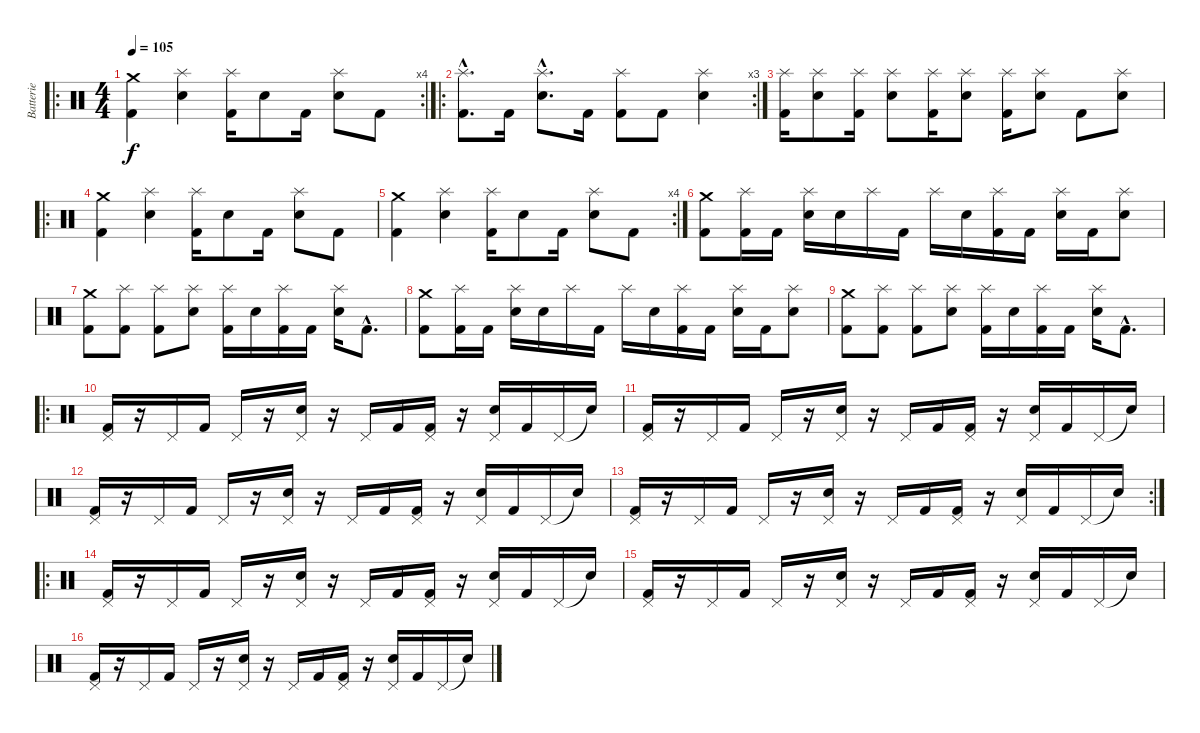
\track ("Batterie" "Batterie") {instrument percussion}
\staff {score}
\articulation defaults
\ro
\rc 4
\ts (4 4)
\tempo 105
\clef neutral
\ks c
("Crash medium (hit)" "Kick (hit) 2").4{dy f} ("Splash (hit)" "Electric Snare (hit)").4 ("Splash (hit)" "Kick (hit) 2").16 "Electric Snare (hit)".8 "Kick (hit) 2".16 ("Splash (hit)" "Electric Snare (hit)").8 "Kick (hit) 2"{tr (36 32)}.8 |
\ro
\rc 3
("Splash (hit)"{hac} "Kick (hit) 2"{hac}).8{d} "Kick (hit) 2".16 ("Splash (hit)"{hac} "Electric Snare (hit)"{hac}).8{d} "Kick (hit) 2".16 ("Splash (hit)" "Kick (hit) 2").8 "Kick (hit) 2".8 ("Splash (hit)" "Electric Snare (hit)").4 |
("Splash (hit)" "Kick (hit) 2").16 ("Splash (hit)" "Electric Snare (hit)").8 ("Splash (hit)" "Kick (hit) 2").16 ("Splash (hit)" "Electric Snare (hit)").8 ("Splash (hit)" "Kick (hit) 2").16 ("Splash (hit)" "Electric Snare (hit)").8 ("Splash (hit)" "Kick (hit) 2").16 ("Splash (hit)" "Electric Snare (hit)").8 "Kick (hit) 2"{tr (36 32)}.8 ("Splash (hit)" "Electric Snare (hit)").8 |
\ro
("Crash medium (hit)" "Kick (hit) 2").4 ("Splash (hit)" "Electric Snare (hit)").4 ("Splash (hit)" "Kick (hit) 2").16 "Electric Snare (hit)".8 "Kick (hit) 2".16 ("Splash (hit)" "Electric Snare (hit)").8 "Kick (hit) 2"{tr (36 32)}.8 |
\rc 4
("Crash medium (hit)" "Kick (hit) 2").4 ("Splash (hit)" "Electric Snare (hit)").4 ("Splash (hit)" "Kick (hit) 2").16 "Electric Snare (hit)".8 "Kick (hit) 2".16 ("Splash (hit)" "Electric Snare (hit)").8 "Kick (hit) 2"{tr (36 32)}.8 |
("Crash medium (hit)" "Kick (hit) 2").8 ("Splash (hit)" "Kick (hit) 2").16 "Kick (hit) 2".16 ("Splash (hit)" "Electric Snare (hit)").16 "Electric Snare (hit)".16 "Splash (hit)".16 "Kick (hit) 2".16 "Splash (hit)".16 "Electric Snare (hit)".16 ("Splash (hit)" "Kick (hit) 2").16 "Kick (hit) 2".16 ("Splash (hit)" "Electric Snare (hit)").16 "Kick (hit) 2".16 ("Splash (hit)" "Electric Snare (hit)").8 |
("Crash medium (hit)" "Kick (hit) 2").8 ("Splash (hit)" "Kick (hit) 2").8 ("Splash (hit)" "Kick (hit) 2").8 ("Splash (hit)" "Electric Snare (hit)").8 ("Splash (hit)" "Kick (hit) 2").16 "Electric Snare (hit)".16 ("Splash (hit)" "Kick (hit) 2").16 "Kick (hit) 2".16 ("Splash (hit)" "Electric Snare (hit)").16 "Kick (hit) 2"{hac}.8{d} |
("Crash medium (hit)" "Kick (hit) 2").8 ("Splash (hit)" "Kick (hit) 2").16 "Kick (hit) 2".16 ("Splash (hit)" "Electric Snare (hit)").16 "Electric Snare (hit)".16 "Splash (hit)".16 "Kick (hit) 2".16 "Splash (hit)".16 "Electric Snare (hit)".16 ("Splash (hit)" "Kick (hit) 2").16 "Kick (hit) 2".16 ("Splash (hit)" "Electric Snare (hit)").16 "Kick (hit) 2".16 ("Splash (hit)" "Electric Snare (hit)").8 |
("Crash medium (hit)" "Kick (hit) 2").8 ("Splash (hit)" "Kick (hit) 2").8 ("Splash (hit)" "Kick (hit) 2").8 ("Splash (hit)" "Electric Snare (hit)").8 ("Splash (hit)" "Kick (hit) 2").16 "Electric Snare (hit)".16 ("Splash (hit)" "Kick (hit) 2").16 "Kick (hit) 2".16 ("Splash (hit)" "Electric Snare (hit)").16 "Kick (hit) 2"{hac}.8{d} |
\ro
("Pedal Hi-Hat (hit)" "Kick (hit) 2").16 r.16 "Pedal Hi-Hat (hit)".16 "Kick (hit) 2".16 "Pedal Hi-Hat (hit)".16 r.16 ("Pedal Hi-Hat (hit)" "Electric Snare (hit)").16 r.16 "Pedal Hi-Hat (hit)".16 "Kick (hit) 2".16 ("Pedal Hi-Hat (hit)" "Kick (hit) 2").16 r.16 ("Pedal Hi-Hat (hit)" "Electric Snare (hit)").16 "Kick (hit) 2".16 "Pedal Hi-Hat (hit)"{tr (44 64)}.16 "Snare (hit)"{t}.16 |
("Pedal Hi-Hat (hit)" "Kick (hit) 2").16 r.16 "Pedal Hi-Hat (hit)".16 "Kick (hit) 2".16 "Pedal Hi-Hat (hit)".16 r.16 ("Pedal Hi-Hat (hit)" "Electric Snare (hit)").16 r.16 "Pedal Hi-Hat (hit)".16 "Kick (hit) 2".16 ("Pedal Hi-Hat (hit)" "Kick (hit) 2").16 r.16 ("Pedal Hi-Hat (hit)" "Electric Snare (hit)").16 "Kick (hit) 2".16 "Pedal Hi-Hat (hit)"{tr (44 64)}.16 "Snare (hit)"{t}.16 |
("Pedal Hi-Hat (hit)" "Kick (hit) 2").16 r.16 "Pedal Hi-Hat (hit)".16 "Kick (hit) 2".16 "Pedal Hi-Hat (hit)".16 r.16 ("Pedal Hi-Hat (hit)" "Electric Snare (hit)").16 r.16 "Pedal Hi-Hat (hit)".16 "Kick (hit) 2".16 ("Pedal Hi-Hat (hit)" "Kick (hit) 2").16 r.16 ("Pedal Hi-Hat (hit)" "Electric Snare (hit)").16 "Kick (hit) 2".16 "Pedal Hi-Hat (hit)"{tr (44 64)}.16 "Snare (hit)"{t}.16 |
\rc 2
("Pedal Hi-Hat (hit)" "Kick (hit) 2").16 r.16 "Pedal Hi-Hat (hit)".16 "Kick (hit) 2".16 "Pedal Hi-Hat (hit)".16 r.16 ("Pedal Hi-Hat (hit)" "Electric Snare (hit)").16 r.16 "Pedal Hi-Hat (hit)".16 "Kick (hit) 2".16 ("Pedal Hi-Hat (hit)" "Kick (hit) 2").16 r.16 ("Pedal Hi-Hat (hit)" "Electric Snare (hit)").16 "Kick (hit) 2".16 "Pedal Hi-Hat (hit)"{tr (44 64)}.16 "Snare (hit)"{t}.16 |
\ro
("Pedal Hi-Hat (hit)" "Kick (hit) 2").16 r.16 "Pedal Hi-Hat (hit)".16 "Kick (hit) 2".16 "Pedal Hi-Hat (hit)".16 r.16 ("Pedal Hi-Hat (hit)" "Electric Snare (hit)").16 r.16 "Pedal Hi-Hat (hit)".16 "Kick (hit) 2".16 ("Pedal Hi-Hat (hit)" "Kick (hit) 2").16 r.16 ("Pedal Hi-Hat (hit)" "Electric Snare (hit)").16 "Kick (hit) 2".16 "Pedal Hi-Hat (hit)"{tr (44 64)}.16 "Snare (hit)"{t}.16 |
("Pedal Hi-Hat (hit)" "Kick (hit) 2").16 r.16 "Pedal Hi-Hat (hit)".16 "Kick (hit) 2".16 "Pedal Hi-Hat (hit)".16 r.16 ("Pedal Hi-Hat (hit)" "Electric Snare (hit)").16 r.16 "Pedal Hi-Hat (hit)".16 "Kick (hit) 2".16 ("Pedal Hi-Hat (hit)" "Kick (hit) 2").16 r.16 ("Pedal Hi-Hat (hit)" "Electric Snare (hit)").16 "Kick (hit) 2".16 "Pedal Hi-Hat (hit)"{tr (44 64)}.16 "Snare (hit)"{t}.16 |
("Pedal Hi-Hat (hit)" "Kick (hit) 2").16 r.16 "Pedal Hi-Hat (hit)".16 "Kick (hit) 2".16 "Pedal Hi-Hat (hit)".16 r.16 ("Pedal Hi-Hat (hit)" "Electric Snare (hit)").16 r.16 "Pedal Hi-Hat (hit)".16 "Kick (hit) 2".16 ("Pedal Hi-Hat (hit)" "Kick (hit) 2").16 r.16 ("Pedal Hi-Hat (hit)" "Electric Snare (hit)").16 "Kick (hit) 2".16 "Pedal Hi-Hat (hit)"{tr (44 64)}.16 "Snare (hit)"{t}.16
